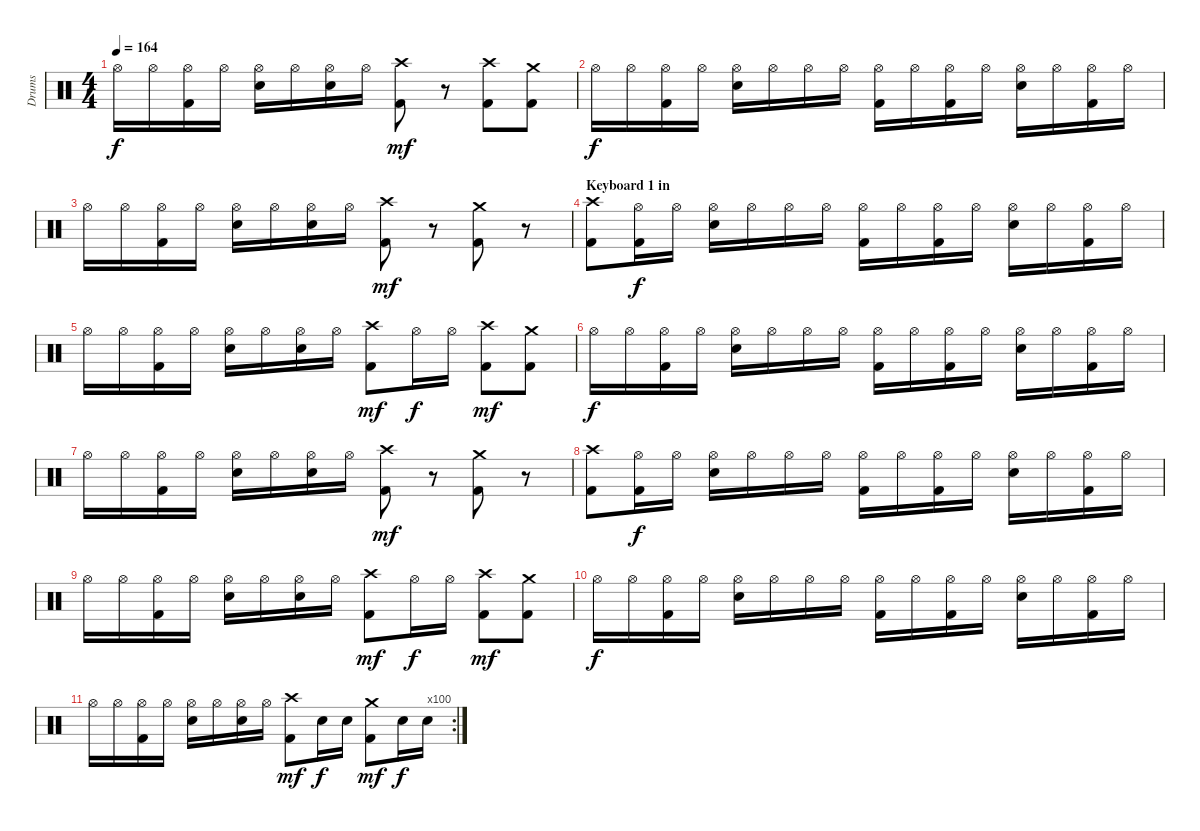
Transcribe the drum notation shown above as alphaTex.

\track ("Drums" "Drums") {instrument percussion}
\staff {score}
\articulation defaults
\ts (4 4)
\tempo 164
\clef neutral
\ks c "Hi-Hat (open)".16{dy f} "Hi-Hat (open)".16
("Hi-Hat (open)" "Kick (hit) 2").16 "Hi-Hat (open)".16 ("Hi-Hat (open)" "Snare (hit) 2").16 "Hi-Hat (open)".16 ("Hi-Hat (open)" "Snare (hit) 2").16 "Hi-Hat (open)".16 ("Crash high (hit)" "Kick (hit) 2").8{dy mf} r.8 ("Crash high (hit)" "Kick (hit) 2").8 ("Crash medium (hit)" "Kick (hit) 2").8 |
"Hi-Hat (open)".16{dy f} "Hi-Hat (open)".16 ("Hi-Hat (open)" "Kick (hit) 2").16 "Hi-Hat (open)".16 ("Hi-Hat (open)" "Snare (hit) 2").16 "Hi-Hat (open)".16 "Hi-Hat (open)".16 "Hi-Hat (open)".16 ("Hi-Hat (open)" "Kick (hit) 2").16 "Hi-Hat (open)".16 ("Hi-Hat (open)" "Kick (hit) 2").16 "Hi-Hat (open)".16 ("Hi-Hat (open)" "Snare (hit) 2").16 "Hi-Hat (open)".16 ("Hi-Hat (open)" "Kick (hit) 2").16 "Hi-Hat (open)".16 |
"Hi-Hat (open)".16 "Hi-Hat (open)".16 ("Hi-Hat (open)" "Kick (hit) 2").16 "Hi-Hat (open)".16 ("Hi-Hat (open)" "Snare (hit) 2").16 "Hi-Hat (open)".16 ("Hi-Hat (open)" "Snare (hit) 2").16 "Hi-Hat (open)".16 ("Crash high (hit)" "Kick (hit) 2").8{dy mf} r.8 ("Crash medium (hit)" "Kick (hit) 2").8 r.8 |
\section ("" "Keyboard 1 in")
("Crash high (hit)" "Kick (hit) 2").8 ("Hi-Hat (open)" "Kick (hit) 2").16{dy f} "Hi-Hat (open)".16 ("Hi-Hat (open)" "Snare (hit) 2").16 "Hi-Hat (open)".16 "Hi-Hat (open)".16 "Hi-Hat (open)".16 ("Hi-Hat (open)" "Kick (hit) 2").16 "Hi-Hat (open)".16 ("Hi-Hat (open)" "Kick (hit) 2").16 "Hi-Hat (open)".16 ("Hi-Hat (open)" "Snare (hit) 2").16 "Hi-Hat (open)".16 ("Hi-Hat (open)" "Kick (hit) 2").16 "Hi-Hat (open)".16 |
"Hi-Hat (open)".16 "Hi-Hat (open)".16 ("Hi-Hat (open)" "Kick (hit) 2").16 "Hi-Hat (open)".16 ("Hi-Hat (open)" "Snare (hit) 2").16 "Hi-Hat (open)".16 ("Hi-Hat (open)" "Snare (hit) 2").16 "Hi-Hat (open)".16 ("Crash high (hit)" "Kick (hit) 2").8{dy mf} "Hi-Hat (open)".16{dy f} "Hi-Hat (open)".16 ("Crash high (hit)" "Kick (hit) 2").8{dy mf} ("Crash medium (hit)" "Kick (hit) 2").8 |
"Hi-Hat (open)".16{dy f} "Hi-Hat (open)".16 ("Hi-Hat (open)" "Kick (hit) 2").16 "Hi-Hat (open)".16 ("Hi-Hat (open)" "Snare (hit) 2").16 "Hi-Hat (open)".16 "Hi-Hat (open)".16 "Hi-Hat (open)".16 ("Hi-Hat (open)" "Kick (hit) 2").16 "Hi-Hat (open)".16 ("Hi-Hat (open)" "Kick (hit) 2").16 "Hi-Hat (open)".16 ("Hi-Hat (open)" "Snare (hit) 2").16 "Hi-Hat (open)".16 ("Hi-Hat (open)" "Kick (hit) 2").16 "Hi-Hat (open)".16 |
"Hi-Hat (open)".16 "Hi-Hat (open)".16 ("Hi-Hat (open)" "Kick (hit) 2").16 "Hi-Hat (open)".16 ("Hi-Hat (open)" "Snare (hit) 2").16 "Hi-Hat (open)".16 ("Hi-Hat (open)" "Snare (hit) 2").16 "Hi-Hat (open)".16 ("Crash high (hit)" "Kick (hit) 2").8{dy mf} r.8 ("Crash medium (hit)" "Kick (hit) 2").8 r.8 |
("Crash high (hit)" "Kick (hit) 2").8 ("Hi-Hat (open)" "Kick (hit) 2").16{dy f} "Hi-Hat (open)".16 ("Hi-Hat (open)" "Snare (hit) 2").16 "Hi-Hat (open)".16 "Hi-Hat (open)".16 "Hi-Hat (open)".16 ("Hi-Hat (open)" "Kick (hit) 2").16 "Hi-Hat (open)".16 ("Hi-Hat (open)" "Kick (hit) 2").16 "Hi-Hat (open)".16 ("Hi-Hat (open)" "Snare (hit) 2").16 "Hi-Hat (open)".16 ("Hi-Hat (open)" "Kick (hit) 2").16 "Hi-Hat (open)".16 |
"Hi-Hat (open)".16 "Hi-Hat (open)".16 ("Hi-Hat (open)" "Kick (hit) 2").16 "Hi-Hat (open)".16 ("Hi-Hat (open)" "Snare (hit) 2").16 "Hi-Hat (open)".16 ("Hi-Hat (open)" "Snare (hit) 2").16 "Hi-Hat (open)".16 ("Crash high (hit)" "Kick (hit) 2").8{dy mf} "Hi-Hat (open)".16{dy f} "Hi-Hat (open)".16 ("Crash high (hit)" "Kick (hit) 2").8{dy mf} ("Crash medium (hit)" "Kick (hit) 2").8 |
"Hi-Hat (open)".16{dy f} "Hi-Hat (open)".16 ("Hi-Hat (open)" "Kick (hit) 2").16 "Hi-Hat (open)".16 ("Hi-Hat (open)" "Snare (hit) 2").16 "Hi-Hat (open)".16 "Hi-Hat (open)".16 "Hi-Hat (open)".16 ("Hi-Hat (open)" "Kick (hit) 2").16 "Hi-Hat (open)".16 ("Hi-Hat (open)" "Kick (hit) 2").16 "Hi-Hat (open)".16 ("Hi-Hat (open)" "Snare (hit) 2").16 "Hi-Hat (open)".16 ("Hi-Hat (open)" "Kick (hit) 2").16 "Hi-Hat (open)".16 |
\rc 100 "Hi-Hat (open)".16 "Hi-Hat (open)".16
("Hi-Hat (open)" "Kick (hit) 2").16 "Hi-Hat (open)".16 ("Hi-Hat (open)" "Snare (hit) 2").16 "Hi-Hat (open)".16 ("Hi-Hat (open)" "Snare (hit) 2").16 "Hi-Hat (open)".16 ("Crash high (hit)" "Kick (hit) 2").8{dy mf} "Snare (hit) 2".16{dy f} "Snare (hit) 2".16 ("Crash medium (hit)" "Kick (hit) 2").8{dy mf} "Snare (hit) 2".16{dy f} "Snare (hit) 2".16
